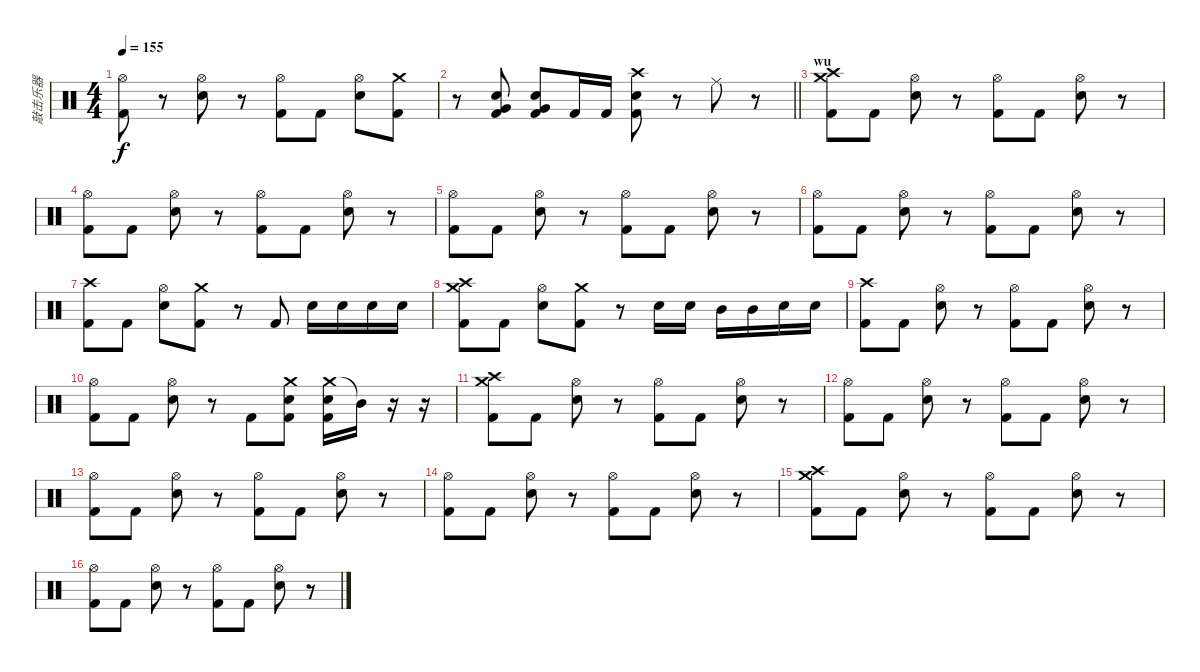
\track ("敲击乐器" "敲击乐器") {instrument percussion}
\staff {score}
\articulation defaults
\ts (4 4)
\tempo 155
\clef neutral
\ks c
("Hi-Hat (open)" "Kick (hit) 2").8{dy f} r.8 ("Hi-Hat (open)" "Snare (hit) 2").8 r.8 ("Hi-Hat (open)" "Kick (hit) 2").8 "Kick (hit) 2".8 ("Hi-Hat (open)" "Snare (hit) 2").8 ("Crash medium (hit)" "Kick (hit) 2").8 |
\barLineRight lightlight
r.8 ("Snare (hit) 2" "Very Low Tom (hit)" "Kick (hit) 2").8 ("Snare (hit) 2" "Very Low Tom (hit)" "Kick (hit) 2").8 "Kick (hit) 2".16 "Kick (hit) 2".16 ("Crash high (hit)" "Snare (hit) 2" "Kick (hit) 2").8 r.8 "Ride (middle)".8 r.8 |
\section ("" "wu")
("Crash high (hit)" "Crash medium (hit)" "Kick (hit) 2").8 "Kick (hit) 2".8 ("Hi-Hat (open)" "Snare (hit) 2").8 r.8 ("Hi-Hat (open)" "Kick (hit) 2").8 "Kick (hit) 2".8 ("Hi-Hat (open)" "Snare (hit) 2").8 r.8 |
("Hi-Hat (open)" "Kick (hit) 2").8 "Kick (hit) 2".8 ("Hi-Hat (open)" "Snare (hit) 2").8 r.8 ("Hi-Hat (open)" "Kick (hit) 2").8 "Kick (hit) 2".8 ("Hi-Hat (open)" "Snare (hit) 2").8 r.8 |
("Hi-Hat (open)" "Kick (hit) 2").8 "Kick (hit) 2".8 ("Hi-Hat (open)" "Snare (hit) 2").8 r.8 ("Hi-Hat (open)" "Kick (hit) 2").8 "Kick (hit) 2".8 ("Hi-Hat (open)" "Snare (hit) 2").8 r.8 |
("Hi-Hat (open)" "Kick (hit) 2").8 "Kick (hit) 2".8 ("Hi-Hat (open)" "Snare (hit) 2").8 r.8 ("Hi-Hat (open)" "Kick (hit) 2").8 "Kick (hit) 2".8 ("Hi-Hat (open)" "Snare (hit) 2").8 r.8 |
("Crash high (hit)" "Kick (hit) 2").8 "Kick (hit) 2".8 ("Hi-Hat (open)" "Snare (hit) 2").8 ("Crash medium (hit)" "Kick (hit) 2").8 r.8 "Kick (hit) 2".8 "Snare (hit) 2".16 "Snare (hit) 2".16 "Snare (hit) 2".16 "Snare (hit) 2".16 |
("Crash high (hit)" "Crash medium (hit)" "Kick (hit) 2").8 "Kick (hit) 2".8 ("Hi-Hat (open)" "Snare (hit) 2").8 ("Crash medium (hit)" "Kick (hit) 2").8 r.8 "Snare (hit) 2".16 "Snare (hit) 2".16 "Mid Tom (hit)".16 "Mid Tom (hit)".16 "Snare (hit) 2".16 "Snare (hit) 2".16 |
("Crash high (hit)" "Kick (hit) 2").8 "Kick (hit) 2".8 ("Hi-Hat (open)" "Snare (hit) 2").8 r.8 ("Hi-Hat (open)" "Kick (hit) 2").8 "Kick (hit) 2".8 ("Hi-Hat (open)" "Snare (hit) 2").8 r.8 |
("Hi-Hat (open)" "Kick (hit) 2").8 "Kick (hit) 2".8 ("Hi-Hat (open)" "Snare (hit) 2").8 r.8 "Kick (hit) 2".8 ("Crash medium (hit)" "Snare (hit) 2" "Kick (hit) 2").8 ("Crash medium (hit)" "Snare (hit) 2" "Kick (hit) 2").16 "Mid Tom (hit)"{t}.16 r.16 r.16 |
("Crash high (hit)" "Crash medium (hit)" "Kick (hit) 2").8 "Kick (hit) 2".8 ("Hi-Hat (open)" "Snare (hit) 2").8 r.8 ("Hi-Hat (open)" "Kick (hit) 2").8 "Kick (hit) 2".8 ("Hi-Hat (open)" "Snare (hit) 2").8 r.8 |
("Hi-Hat (open)" "Kick (hit) 2").8 "Kick (hit) 2".8 ("Hi-Hat (open)" "Snare (hit) 2").8 r.8 ("Hi-Hat (open)" "Kick (hit) 2").8 "Kick (hit) 2".8 ("Hi-Hat (open)" "Snare (hit) 2").8 r.8 |
("Hi-Hat (open)" "Kick (hit) 2").8 "Kick (hit) 2".8 ("Hi-Hat (open)" "Snare (hit) 2").8 r.8 ("Hi-Hat (open)" "Kick (hit) 2").8 "Kick (hit) 2".8 ("Hi-Hat (open)" "Snare (hit) 2").8 r.8 |
("Hi-Hat (open)" "Kick (hit) 2").8 "Kick (hit) 2".8 ("Hi-Hat (open)" "Snare (hit) 2").8 r.8 ("Hi-Hat (open)" "Kick (hit) 2").8 "Kick (hit) 2".8 ("Hi-Hat (open)" "Snare (hit) 2").8 r.8 |
("Crash high (hit)" "Crash medium (hit)" "Kick (hit) 2").8 "Kick (hit) 2".8 ("Hi-Hat (open)" "Snare (hit) 2").8 r.8 ("Hi-Hat (open)" "Kick (hit) 2").8 "Kick (hit) 2".8 ("Hi-Hat (open)" "Snare (hit) 2").8 r.8 |
("Hi-Hat (open)" "Kick (hit) 2").8 "Kick (hit) 2".8 ("Hi-Hat (open)" "Snare (hit) 2").8 r.8 ("Hi-Hat (open)" "Kick (hit) 2").8 "Kick (hit) 2".8 ("Hi-Hat (open)" "Snare (hit) 2").8 r.8
